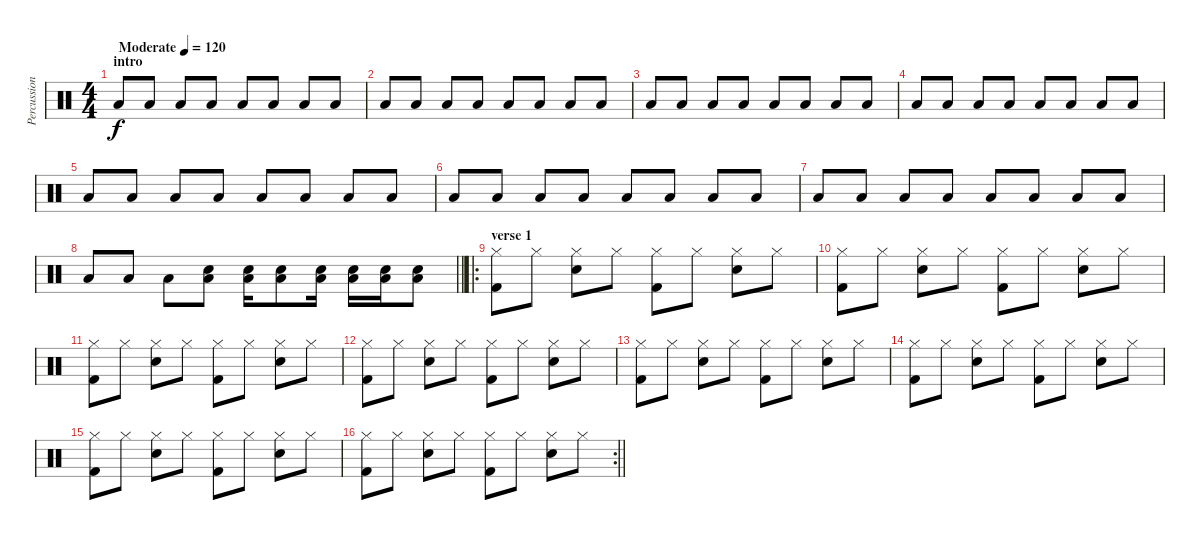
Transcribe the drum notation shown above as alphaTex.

\track ("Percussion" "Percussion") {instrument percussion}
\staff {score}
\articulation defaults
\ts (4 4)
\section ("" "intro")
\tempo (120 "Moderate")
\clef neutral
\ks c "Low Tom (hit)".8{dy f} "Low Tom (hit)".8 "Low Tom (hit)".8 "Low Tom (hit)".8 "Low Tom (hit)".8 "Low Tom (hit)".8 "Low Tom (hit)".8 "Low Tom (hit)".8
|
"Low Tom (hit)".8 "Low Tom (hit)".8 "Low Tom (hit)".8 "Low Tom (hit)".8 "Low Tom (hit)".8 "Low Tom (hit)".8 "Low Tom (hit)".8 "Low Tom (hit)".8 |
"Low Tom (hit)".8 "Low Tom (hit)".8 "Low Tom (hit)".8 "Low Tom (hit)".8 "Low Tom (hit)".8 "Low Tom (hit)".8 "Low Tom (hit)".8 "Low Tom (hit)".8 |
"Low Tom (hit)".8 "Low Tom (hit)".8 "Low Tom (hit)".8 "Low Tom (hit)".8 "Low Tom (hit)".8 "Low Tom (hit)".8 "Low Tom (hit)".8 "Low Tom (hit)".8 |
"Low Tom (hit)".8 "Low Tom (hit)".8 "Low Tom (hit)".8 "Low Tom (hit)".8 "Low Tom (hit)".8 "Low Tom (hit)".8 "Low Tom (hit)".8 "Low Tom (hit)".8 |
"Low Tom (hit)".8 "Low Tom (hit)".8 "Low Tom (hit)".8 "Low Tom (hit)".8 "Low Tom (hit)".8 "Low Tom (hit)".8 "Low Tom (hit)".8 "Low Tom (hit)".8 |
"Low Tom (hit)".8 "Low Tom (hit)".8 "Low Tom (hit)".8 "Low Tom (hit)".8 "Low Tom (hit)".8 "Low Tom (hit)".8 "Low Tom (hit)".8 "Low Tom (hit)".8 |
\barLineRight lightlight "Low Tom (hit)".8 "Low Tom (hit)".8 "Low Tom (hit)".8
("Low Tom (hit)" "Snare (hit) 2").8 ("Low Tom (hit)" "Snare (hit) 2").16 ("Low Tom (hit)" "Snare (hit) 2").8 ("Low Tom (hit)" "Snare (hit) 2").16 ("Low Tom (hit)" "Snare (hit) 2").16 ("Low Tom (hit)" "Snare (hit) 2").16 ("Low Tom (hit)" "Snare (hit) 2").8 |
\ro
\section ("" "verse 1")
("Hi-Hat (closed)" "Kick (hit) 2").8 "Hi-Hat (closed)".8 ("Hi-Hat (closed)" "Snare (hit) 2").8 "Hi-Hat (closed)".8 ("Hi-Hat (closed)" "Kick (hit) 2").8 "Hi-Hat (closed)".8 ("Hi-Hat (closed)" "Snare (hit) 2").8 "Hi-Hat (closed)".8 |
("Hi-Hat (closed)" "Kick (hit) 2").8 "Hi-Hat (closed)".8 ("Hi-Hat (closed)" "Snare (hit) 2").8 "Hi-Hat (closed)".8 ("Hi-Hat (closed)" "Kick (hit) 2").8 "Hi-Hat (closed)".8 ("Hi-Hat (closed)" "Snare (hit) 2").8 "Hi-Hat (closed)".8 |
("Hi-Hat (closed)" "Kick (hit) 2").8 "Hi-Hat (closed)".8 ("Hi-Hat (closed)" "Snare (hit) 2").8 "Hi-Hat (closed)".8 ("Hi-Hat (closed)" "Kick (hit) 2").8 "Hi-Hat (closed)".8 ("Hi-Hat (closed)" "Snare (hit) 2").8 "Hi-Hat (closed)".8 |
("Hi-Hat (closed)" "Kick (hit) 2").8 "Hi-Hat (closed)".8 ("Hi-Hat (closed)" "Snare (hit) 2").8 "Hi-Hat (closed)".8 ("Hi-Hat (closed)" "Kick (hit) 2").8 "Hi-Hat (closed)".8 ("Hi-Hat (closed)" "Snare (hit) 2").8 "Hi-Hat (closed)".8 |
("Hi-Hat (closed)" "Kick (hit) 2").8 "Hi-Hat (closed)".8 ("Hi-Hat (closed)" "Snare (hit) 2").8 "Hi-Hat (closed)".8 ("Hi-Hat (closed)" "Kick (hit) 2").8 "Hi-Hat (closed)".8 ("Hi-Hat (closed)" "Snare (hit) 2").8 "Hi-Hat (closed)".8 |
("Hi-Hat (closed)" "Kick (hit) 2").8 "Hi-Hat (closed)".8 ("Hi-Hat (closed)" "Snare (hit) 2").8 "Hi-Hat (closed)".8 ("Hi-Hat (closed)" "Kick (hit) 2").8 "Hi-Hat (closed)".8 ("Hi-Hat (closed)" "Snare (hit) 2").8 "Hi-Hat (closed)".8 |
("Hi-Hat (closed)" "Kick (hit) 2").8 "Hi-Hat (closed)".8 ("Hi-Hat (closed)" "Snare (hit) 2").8 "Hi-Hat (closed)".8 ("Hi-Hat (closed)" "Kick (hit) 2").8 "Hi-Hat (closed)".8 ("Hi-Hat (closed)" "Snare (hit) 2").8 "Hi-Hat (closed)".8 |
\rc 2
\barLineRight lightlight
("Hi-Hat (closed)" "Kick (hit) 2").8 "Hi-Hat (closed)".8 ("Hi-Hat (closed)" "Snare (hit) 2").8 "Hi-Hat (closed)".8 ("Hi-Hat (closed)" "Kick (hit) 2").8 "Hi-Hat (closed)".8 ("Hi-Hat (closed)" "Snare (hit) 2").8 "Hi-Hat (closed)".8
